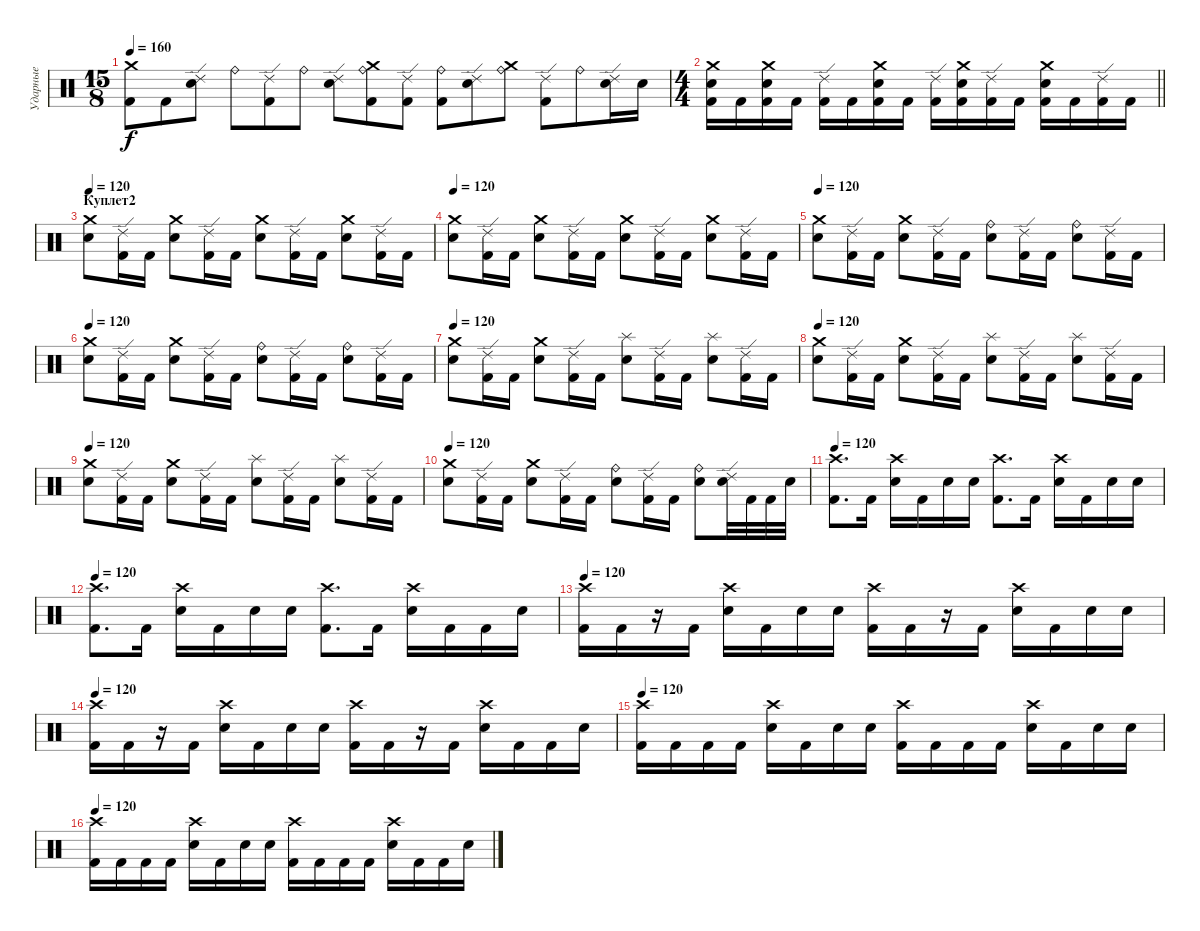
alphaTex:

\track ("Ударные" "Ударные") {instrument percussion}
\staff {score}
\articulation defaults
\ts (15 8)
\tempo 160
\clef neutral
\ks c
("Crash medium (hit)" "Kick (hit) 2").8{dy f} "Kick (hit) 2".8 ("Ride (edge) 2" "Electric Snare (hit)").8 "Ride (bell)".8 ("Ride (edge) 2" "Kick (hit) 2").8 "Ride (bell)".8 ("Ride (edge) 2" "Electric Snare (hit)").8 ("Crash medium (hit)" "Ride (bell)" "Kick (hit) 2").8 ("Ride (edge) 2" "Kick (hit) 2").8 ("Ride (bell)" "Kick (hit) 2").8 ("Ride (edge) 2" "Electric Snare (hit)").8 ("Crash medium (hit)" "Ride (bell)").8 ("Ride (edge) 2" "Kick (hit) 2").8 "Ride (bell)".8 ("Ride (edge) 2" "Electric Snare (hit)").16 "Electric Snare (hit)".16 |
\ts (4 4)
\barLineRight lightlight
("Kick (hit) 2" "Crash medium (hit)" "Electric Snare (hit)").16 "Kick (hit) 2".16 ("Kick (hit) 2" "Crash medium (hit)" "Electric Snare (hit)").16 "Kick (hit) 2".16 ("Ride (edge) 2" "Kick (hit) 2").16 "Kick (hit) 2".16 ("Kick (hit) 2" "Crash medium (hit)" "Electric Snare (hit)").16 "Kick (hit) 2".16 ("Ride (edge) 2" "Kick (hit) 2").16 ("Kick (hit) 2" "Crash medium (hit)" "Electric Snare (hit)").16 ("Ride (edge) 2" "Kick (hit) 2").16 "Kick (hit) 2".16 ("Kick (hit) 2" "Crash medium (hit)" "Electric Snare (hit)").16 "Kick (hit) 2".16 ("Ride (edge) 2" "Kick (hit) 2").16 "Kick (hit) 2".16 |
\section ("" "Куплет2")
\tempo 120
("Crash medium (hit)" "Electric Snare (hit)").8 ("Ride (edge) 2" "Kick (hit) 2").16 "Kick (hit) 2".16 ("Crash medium (hit)" "Electric Snare (hit)").8 ("Ride (edge) 2" "Kick (hit) 2").16 "Kick (hit) 2".16 ("Crash medium (hit)" "Electric Snare (hit)").8 ("Ride (edge) 2" "Kick (hit) 2").16 "Kick (hit) 2".16 ("Crash medium (hit)" "Electric Snare (hit)").8 ("Ride (edge) 2" "Kick (hit) 2").16 "Kick (hit) 2".16 |
\tempo 120
("Crash medium (hit)" "Electric Snare (hit)").8 ("Ride (edge) 2" "Kick (hit) 2").16 "Kick (hit) 2".16 ("Crash medium (hit)" "Electric Snare (hit)").8 ("Ride (edge) 2" "Kick (hit) 2").16 "Kick (hit) 2".16 ("Crash medium (hit)" "Electric Snare (hit)").8 ("Ride (edge) 2" "Kick (hit) 2").16 "Kick (hit) 2".16 ("Crash medium (hit)" "Electric Snare (hit)").8 ("Ride (edge) 2" "Kick (hit) 2").16 "Kick (hit) 2".16 |
\tempo 120
("Crash medium (hit)" "Electric Snare (hit)").8 ("Ride (edge) 2" "Kick (hit) 2").16 "Kick (hit) 2".16 ("Crash medium (hit)" "Electric Snare (hit)").8 ("Ride (edge) 2" "Kick (hit) 2").16 "Kick (hit) 2".16 ("Ride (bell)" "Electric Snare (hit)").8 ("Ride (edge) 2" "Kick (hit) 2").16 "Kick (hit) 2".16 ("Ride (bell)" "Electric Snare (hit)").8 ("Ride (edge) 2" "Kick (hit) 2").16 "Kick (hit) 2".16 |
\tempo 120
("Crash medium (hit)" "Electric Snare (hit)").8 ("Ride (edge) 2" "Kick (hit) 2").16 "Kick (hit) 2".16 ("Crash medium (hit)" "Electric Snare (hit)").8 ("Ride (edge) 2" "Kick (hit) 2").16 "Kick (hit) 2".16 ("Ride (bell)" "Electric Snare (hit)").8 ("Ride (edge) 2" "Kick (hit) 2").16 "Kick (hit) 2".16 ("Ride (bell)" "Electric Snare (hit)").8 ("Kick (hit) 2" "Ride (edge) 2").16 "Kick (hit) 2".16 |
\tempo 120
("Crash medium (hit)" "Electric Snare (hit)").8 ("Ride (edge) 2" "Kick (hit) 2").16 "Kick (hit) 2".16 ("Crash medium (hit)" "Electric Snare (hit)").8 ("Ride (edge) 2" "Kick (hit) 2").16 "Kick (hit) 2".16 ("Splash (hit)" "Electric Snare (hit)").8 ("Ride (edge) 2" "Kick (hit) 2").16 "Kick (hit) 2".16 ("Splash (hit)" "Electric Snare (hit)").8 ("Ride (edge) 2" "Kick (hit) 2").16 "Kick (hit) 2".16 |
\tempo 120
("Crash medium (hit)" "Electric Snare (hit)").8 ("Ride (edge) 2" "Kick (hit) 2").16 "Kick (hit) 2".16 ("Crash medium (hit)" "Electric Snare (hit)").8 ("Ride (edge) 2" "Kick (hit) 2").16 "Kick (hit) 2".16 ("Splash (hit)" "Electric Snare (hit)").8 ("Ride (edge) 2" "Kick (hit) 2").16 "Kick (hit) 2".16 ("Splash (hit)" "Electric Snare (hit)").8 ("Kick (hit) 2" "Ride (edge) 2").16 "Kick (hit) 2".16 |
\tempo 120
("Crash medium (hit)" "Electric Snare (hit)").8 ("Ride (edge) 2" "Kick (hit) 2").16 "Kick (hit) 2".16 ("Crash medium (hit)" "Electric Snare (hit)").8 ("Ride (edge) 2" "Kick (hit) 2").16 "Kick (hit) 2".16 ("Splash (hit)" "Electric Snare (hit)").8 ("Ride (edge) 2" "Kick (hit) 2").16 "Kick (hit) 2".16 ("Splash (hit)" "Electric Snare (hit)").8 ("Ride (edge) 2" "Kick (hit) 2").16 "Kick (hit) 2".16 |
\tempo 120
("Crash medium (hit)" "Electric Snare (hit)").8 ("Ride (edge) 2" "Kick (hit) 2").16 "Kick (hit) 2".16 ("Crash medium (hit)" "Electric Snare (hit)").8 ("Ride (edge) 2" "Kick (hit) 2").16 "Kick (hit) 2".16 ("Ride (bell)" "Electric Snare (hit)").8 ("Ride (edge) 2" "Kick (hit) 2").16 "Kick (hit) 2".16 ("Ride (bell)" "Electric Snare (hit)").8 ("Electric Snare (hit)" "Ride (edge) 2").32 "Kick (hit) 2".32 "Kick (hit) 2".32 "Electric Snare (hit)".32 |
\tempo 120
("Crash high (hit)" "Kick (hit) 2").8{d} "Kick (hit) 2".16 ("Crash high (hit)" "Electric Snare (hit)").16 "Kick (hit) 2".16 "Electric Snare (hit)".16 "Electric Snare (hit)".16 ("Crash high (hit)" "Kick (hit) 2").8{d} "Kick (hit) 2".16 ("Crash high (hit)" "Electric Snare (hit)").16 "Kick (hit) 2".16 "Electric Snare (hit)".16 "Electric Snare (hit)".16 |
\tempo 120
("Crash high (hit)" "Kick (hit) 2").8{d} "Kick (hit) 2".16 ("Crash high (hit)" "Electric Snare (hit)").16 "Kick (hit) 2".16 "Electric Snare (hit)".16 "Electric Snare (hit)".16 ("Crash high (hit)" "Kick (hit) 2").8{d} "Kick (hit) 2".16 ("Crash high (hit)" "Electric Snare (hit)").16 "Kick (hit) 2".16 "Kick (hit) 2".16 "Electric Snare (hit)".16 |
\tempo 120
("Crash high (hit)" "Kick (hit) 2").16 "Kick (hit) 2".16 r.16 "Kick (hit) 2".16 ("Crash high (hit)" "Electric Snare (hit)").16 "Kick (hit) 2".16 "Electric Snare (hit)".16 "Electric Snare (hit)".16 ("Crash high (hit)" "Kick (hit) 2").16 "Kick (hit) 2".16 r.16 "Kick (hit) 2".16 ("Crash high (hit)" "Electric Snare (hit)").16 "Kick (hit) 2".16 "Electric Snare (hit)".16 "Electric Snare (hit)".16 |
\tempo 120
("Crash high (hit)" "Kick (hit) 2").16 "Kick (hit) 2".16 r.16 "Kick (hit) 2".16 ("Crash high (hit)" "Electric Snare (hit)").16 "Kick (hit) 2".16 "Electric Snare (hit)".16 "Electric Snare (hit)".16 ("Crash high (hit)" "Kick (hit) 2").16 "Kick (hit) 2".16 r.16 "Kick (hit) 2".16 ("Crash high (hit)" "Electric Snare (hit)").16 "Kick (hit) 2".16 "Kick (hit) 2".16 "Electric Snare (hit)".16 |
\tempo 120
("Crash high (hit)" "Kick (hit) 2").16 "Kick (hit) 2".16 "Kick (hit) 2".16 "Kick (hit) 2".16 ("Crash high (hit)" "Electric Snare (hit)").16 "Kick (hit) 2".16 "Electric Snare (hit)".16 "Electric Snare (hit)".16 ("Crash high (hit)" "Kick (hit) 2").16 "Kick (hit) 2".16 "Kick (hit) 2".16 "Kick (hit) 2".16 ("Crash high (hit)" "Electric Snare (hit)").16 "Kick (hit) 2".16 "Electric Snare (hit)".16 "Electric Snare (hit)".16 |
\tempo 120
("Crash high (hit)" "Kick (hit) 2").16 "Kick (hit) 2".16 "Kick (hit) 2".16 "Kick (hit) 2".16 ("Crash high (hit)" "Electric Snare (hit)").16 "Kick (hit) 2".16 "Electric Snare (hit)".16 "Electric Snare (hit)".16 ("Crash high (hit)" "Kick (hit) 2").16 "Kick (hit) 2".16 "Kick (hit) 2".16 "Kick (hit) 2".16 ("Crash high (hit)" "Electric Snare (hit)").16 "Kick (hit) 2".16 "Kick (hit) 2".16 "Electric Snare (hit)".16
